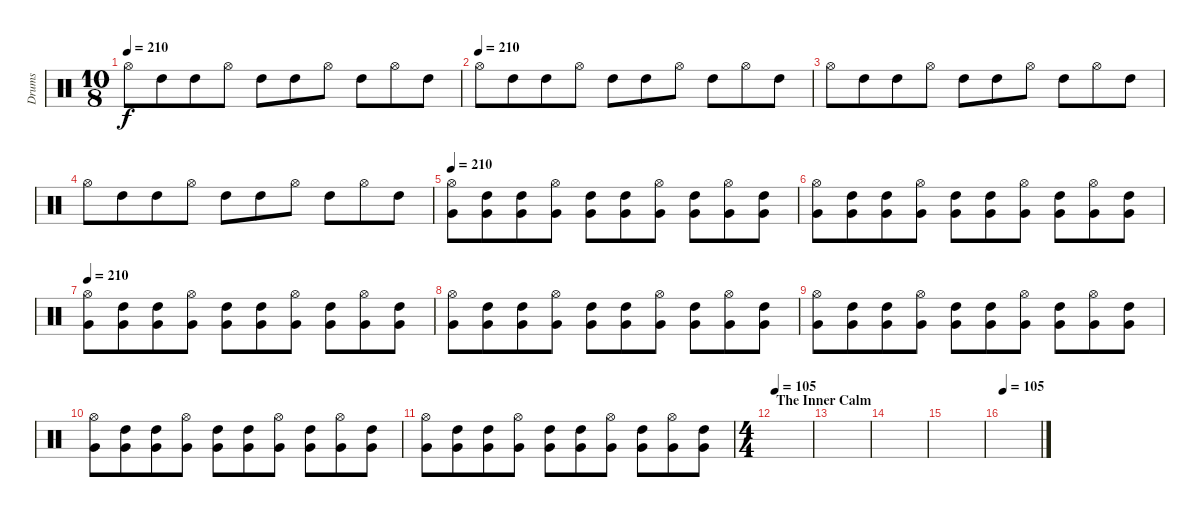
\track ("Drums" "Drums") {instrument percussion}
\staff {score}
\articulation defaults
\ts (10 8)
\tempo 210
\clef neutral
\ks c "Hi-Hat (open)".8{dy f} "High Tom (hit)".8 "High Tom (hit)".8 "Hi-Hat (open)".8 "High Tom (hit)".8 "High Tom (hit)".8 "Hi-Hat (open)".8 "High Tom (hit)".8 "Hi-Hat (open)".8 "High Tom (hit)".8
|
\tempo (210)
"Hi-Hat (open)".8 "High Tom (hit)".8 "High Tom (hit)".8 "Hi-Hat (open)".8 "High Tom (hit)".8 "High Tom (hit)".8 "Hi-Hat (open)".8 "High Tom (hit)".8 "Hi-Hat (open)".8 "High Tom (hit)".8 |
"Hi-Hat (open)".8 "High Tom (hit)".8 "High Tom (hit)".8 "Hi-Hat (open)".8 "High Tom (hit)".8 "High Tom (hit)".8 "Hi-Hat (open)".8 "High Tom (hit)".8 "Hi-Hat (open)".8 "High Tom (hit)".8 |
"Hi-Hat (open)".8 "High Tom (hit)".8 "High Tom (hit)".8 "Hi-Hat (open)".8 "High Tom (hit)".8 "High Tom (hit)".8 "Hi-Hat (open)".8 "High Tom (hit)".8 "Hi-Hat (open)".8 "High Tom (hit)".8 |
\tempo 210
("Hi-Hat (open)" "Very Low Tom (hit)").8 ("High Tom (hit)" "Very Low Tom (hit)").8 ("High Tom (hit)" "Very Low Tom (hit)").8 ("Hi-Hat (open)" "Very Low Tom (hit)").8 ("High Tom (hit)" "Very Low Tom (hit)").8 ("High Tom (hit)" "Very Low Tom (hit)").8 ("Hi-Hat (open)" "Very Low Tom (hit)").8 ("High Tom (hit)" "Very Low Tom (hit)").8 ("Hi-Hat (open)" "Very Low Tom (hit)").8 ("High Tom (hit)" "Very Low Tom (hit)").8 |
("Hi-Hat (open)" "Very Low Tom (hit)").8 ("High Tom (hit)" "Very Low Tom (hit)").8 ("High Tom (hit)" "Very Low Tom (hit)").8 ("Hi-Hat (open)" "Very Low Tom (hit)").8 ("High Tom (hit)" "Very Low Tom (hit)").8 ("High Tom (hit)" "Very Low Tom (hit)").8 ("Hi-Hat (open)" "Very Low Tom (hit)").8 ("High Tom (hit)" "Very Low Tom (hit)").8 ("Hi-Hat (open)" "Very Low Tom (hit)").8 ("High Tom (hit)" "Very Low Tom (hit)").8 |
\tempo 210
("Hi-Hat (open)" "Very Low Tom (hit)").8 ("High Tom (hit)" "Very Low Tom (hit)").8 ("High Tom (hit)" "Very Low Tom (hit)").8 ("Hi-Hat (open)" "Very Low Tom (hit)").8 ("High Tom (hit)" "Very Low Tom (hit)").8 ("High Tom (hit)" "Very Low Tom (hit)").8 ("Hi-Hat (open)" "Very Low Tom (hit)").8 ("High Tom (hit)" "Very Low Tom (hit)").8 ("Hi-Hat (open)" "Very Low Tom (hit)").8 ("High Tom (hit)" "Very Low Tom (hit)").8 |
("Hi-Hat (open)" "Very Low Tom (hit)").8 ("High Tom (hit)" "Very Low Tom (hit)").8 ("High Tom (hit)" "Very Low Tom (hit)").8 ("Hi-Hat (open)" "Very Low Tom (hit)").8 ("High Tom (hit)" "Very Low Tom (hit)").8 ("High Tom (hit)" "Very Low Tom (hit)").8 ("Hi-Hat (open)" "Very Low Tom (hit)").8 ("High Tom (hit)" "Very Low Tom (hit)").8 ("Hi-Hat (open)" "Very Low Tom (hit)").8 ("High Tom (hit)" "Very Low Tom (hit)").8 |
("Hi-Hat (open)" "Very Low Tom (hit)").8 ("High Tom (hit)" "Very Low Tom (hit)").8 ("High Tom (hit)" "Very Low Tom (hit)").8 ("Hi-Hat (open)" "Very Low Tom (hit)").8 ("High Tom (hit)" "Very Low Tom (hit)").8 ("High Tom (hit)" "Very Low Tom (hit)").8 ("Hi-Hat (open)" "Very Low Tom (hit)").8 ("High Tom (hit)" "Very Low Tom (hit)").8 ("Hi-Hat (open)" "Very Low Tom (hit)").8 ("High Tom (hit)" "Very Low Tom (hit)").8 |
("Hi-Hat (open)" "Very Low Tom (hit)").8 ("High Tom (hit)" "Very Low Tom (hit)").8 ("High Tom (hit)" "Very Low Tom (hit)").8 ("Hi-Hat (open)" "Very Low Tom (hit)").8 ("High Tom (hit)" "Very Low Tom (hit)").8 ("High Tom (hit)" "Very Low Tom (hit)").8 ("Hi-Hat (open)" "Very Low Tom (hit)").8 ("High Tom (hit)" "Very Low Tom (hit)").8 ("Hi-Hat (open)" "Very Low Tom (hit)").8 ("High Tom (hit)" "Very Low Tom (hit)").8 |
("Hi-Hat (open)" "Very Low Tom (hit)").8 ("High Tom (hit)" "Very Low Tom (hit)").8 ("High Tom (hit)" "Very Low Tom (hit)").8 ("Hi-Hat (open)" "Very Low Tom (hit)").8 ("High Tom (hit)" "Very Low Tom (hit)").8 ("High Tom (hit)" "Very Low Tom (hit)").8 ("Hi-Hat (open)" "Very Low Tom (hit)").8 ("High Tom (hit)" "Very Low Tom (hit)").8 ("Hi-Hat (open)" "Very Low Tom (hit)").8 ("High Tom (hit)" "Very Low Tom (hit)").8 |
\ts (4 4)
\section ("" "The Inner Calm")
\tempo 105
|
|
|
|
\tempo 105
